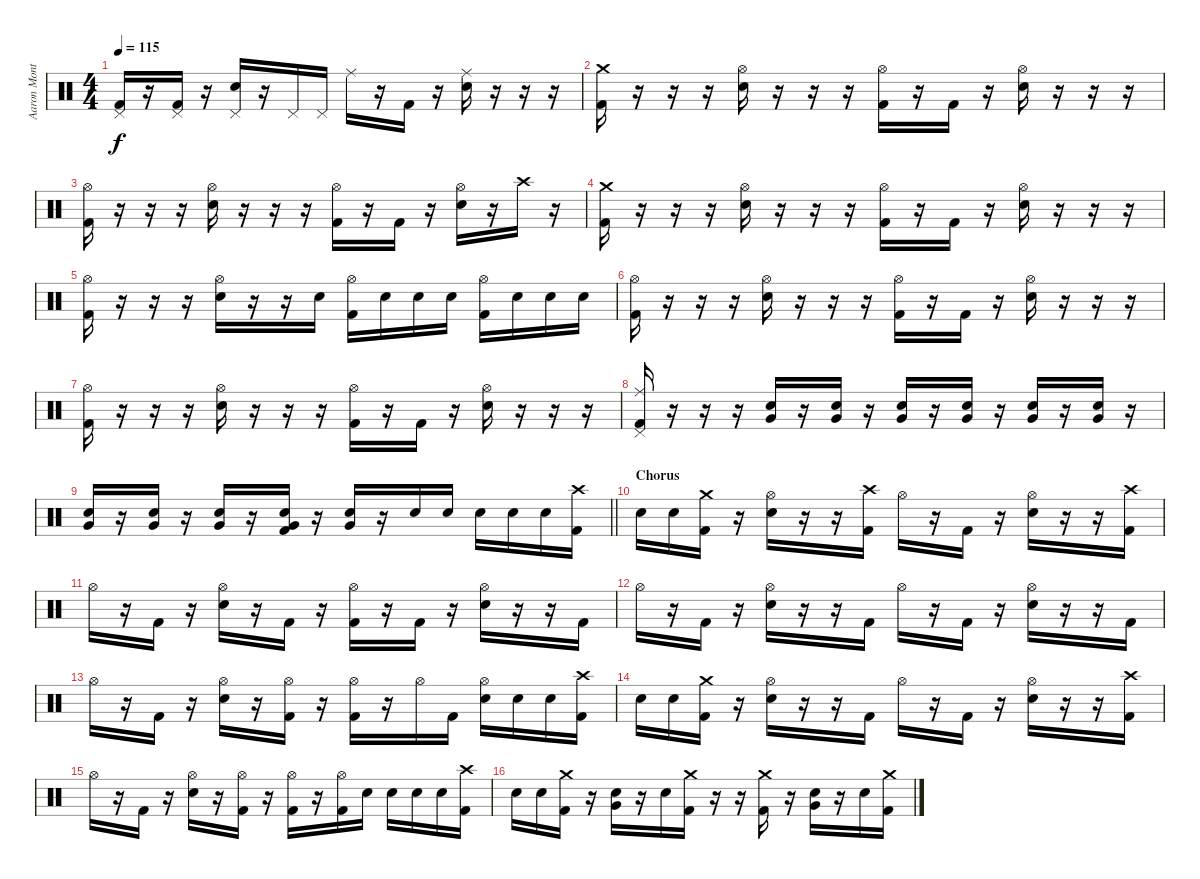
\track ("Aaron Montgomery" "Aaron Mont") {instrument percussion}
\staff {score}
\articulation defaults
\ts (4 4)
\tempo 115
\clef neutral
\ks c
("Pedal Hi-Hat (hit)" "Kick (hit) 2").16{dy f} r.16 ("Pedal Hi-Hat (hit)" "Kick (hit) 2").16 r.16 ("Pedal Hi-Hat (hit)" "Snare (hit) 2").16 r.16 "Pedal Hi-Hat (hit)".16 "Pedal Hi-Hat (hit)".16 "Ride (middle)".16 r.16 "Kick (hit) 2".16 r.16 ("Ride (middle)" "Snare (hit) 2").16 r.16 r.16 r.16 |
("Crash medium (hit)" "Kick (hit) 2").16 r.16 r.16 r.16 ("Hi-Hat (open)" "Snare (hit) 2").16 r.16 r.16 r.16 ("Hi-Hat (open)" "Kick (hit) 2").16 r.16 "Kick (hit) 2".16 r.16 ("Hi-Hat (open)" "Snare (hit) 2").16 r.16 r.16 r.16 |
("Hi-Hat (open)" "Kick (hit) 2").16 r.16 r.16 r.16 ("Hi-Hat (open)" "Snare (hit) 2").16 r.16 r.16 r.16 ("Hi-Hat (open)" "Kick (hit) 2").16 r.16 "Kick (hit) 2".16 r.16 ("Hi-Hat (open)" "Snare (hit) 2").16 r.16 "Crash high (hit)".16 r.16 |
("Crash medium (hit)" "Kick (hit) 2").16 r.16 r.16 r.16 ("Hi-Hat (open)" "Snare (hit) 2").16 r.16 r.16 r.16 ("Hi-Hat (open)" "Kick (hit) 2").16 r.16 "Kick (hit) 2".16 r.16 ("Hi-Hat (open)" "Snare (hit) 2").16 r.16 r.16 r.16 |
("Hi-Hat (open)" "Kick (hit) 2").16 r.16 r.16 r.16 ("Hi-Hat (open)" "Snare (hit) 2").16 r.16 r.16 "Snare (hit) 2".16 ("Hi-Hat (open)" "Kick (hit) 2").16 "Snare (hit) 2".16 "Snare (hit) 2".16 "Snare (hit) 2".16 ("Hi-Hat (open)" "Kick (hit) 2").16 "Snare (hit) 2".16 "Snare (hit) 2".16 "Snare (hit) 2".16 |
("Hi-Hat (open)" "Kick (hit) 2").16 r.16 r.16 r.16 ("Hi-Hat (open)" "Snare (hit) 2").16 r.16 r.16 r.16 ("Hi-Hat (open)" "Kick (hit) 2").16 r.16 "Kick (hit) 2".16 r.16 ("Hi-Hat (open)" "Snare (hit) 2").16 r.16 r.16 r.16 |
("Hi-Hat (open)" "Kick (hit) 2").16 r.16 r.16 r.16 ("Hi-Hat (open)" "Snare (hit) 2").16 r.16 r.16 r.16 ("Hi-Hat (open)" "Kick (hit) 2").16 r.16 "Kick (hit) 2".16 r.16 ("Hi-Hat (open)" "Snare (hit) 2").16 r.16 r.16 r.16 |
("Pedal Hi-Hat (hit)" "Ride (middle)" "Kick (hit) 2").16 r.16 r.16 r.16 ("Very Low Tom (hit)" "Snare (hit) 2").16 r.16 ("Very Low Tom (hit)" "Snare (hit) 2").16 r.16 ("Very Low Tom (hit)" "Snare (hit) 2").16 r.16 ("Very Low Tom (hit)" "Snare (hit) 2").16 r.16 ("Very Low Tom (hit)" "Snare (hit) 2").16 r.16 ("Very Low Tom (hit)" "Snare (hit) 2").16 r.16 |
\barLineRight lightlight
("Very Low Tom (hit)" "Snare (hit) 2").16 r.16 ("Very Low Tom (hit)" "Snare (hit) 2").16 r.16 ("Very Low Tom (hit)" "Snare (hit) 2").16 r.16 ("Very Low Tom (hit)" "Snare (hit) 2" "Kick (hit) 2").16 r.16 ("Very Low Tom (hit)" "Snare (hit) 2").16 r.16 "Snare (hit) 2".16 "Snare (hit) 2".16 "Snare (hit) 2".16 "Snare (hit) 2".16 "Snare (hit) 2".16 ("Crash high (hit)" "Kick (hit) 2").16 |
\section ("" "Chorus")
"Snare (hit) 2".16 "Snare (hit) 2".16 ("Crash medium (hit)" "Kick (hit) 2").16 r.16 ("Hi-Hat (open)" "Snare (hit) 2").16 r.16 r.16 ("Crash high (hit)" "Kick (hit) 2").16 "Hi-Hat (open)".16 r.16 "Kick (hit) 2".16 r.16 ("Hi-Hat (open)" "Snare (hit) 2").16 r.16 r.16 ("Crash high (hit)" "Kick (hit) 2").16 |
"Hi-Hat (open)".16 r.16 "Kick (hit) 2".16 r.16 ("Hi-Hat (open)" "Snare (hit) 2").16 r.16 "Kick (hit) 2".16 r.16 ("Hi-Hat (open)" "Kick (hit) 2").16 r.16 "Kick (hit) 2".16 r.16 ("Hi-Hat (open)" "Snare (hit) 2").16 r.16 r.16 "Kick (hit) 2".16 |
"Hi-Hat (open)".16 r.16 "Kick (hit) 2".16 r.16 ("Hi-Hat (open)" "Snare (hit) 2").16 r.16 r.16 "Kick (hit) 2".16 "Hi-Hat (open)".16 r.16 "Kick (hit) 2".16 r.16 ("Hi-Hat (open)" "Snare (hit) 2").16 r.16 r.16 "Kick (hit) 2".16 |
"Hi-Hat (open)".16 r.16 "Kick (hit) 2".16 r.16 ("Hi-Hat (open)" "Snare (hit) 2").16 r.16 ("Hi-Hat (open)" "Kick (hit) 2").16 r.16 ("Hi-Hat (open)" "Kick (hit) 2").16 r.16 "Hi-Hat (open)".16 "Kick (hit) 2".16 ("Hi-Hat (open)" "Snare (hit) 2").16 "Snare (hit) 2".16 "Snare (hit) 2".16 ("Crash high (hit)" "Kick (hit) 2").16 |
"Snare (hit) 2".16 "Snare (hit) 2".16 ("Crash medium (hit)" "Kick (hit) 2").16 r.16 ("Hi-Hat (open)" "Snare (hit) 2").16 r.16 r.16 "Kick (hit) 2".16 "Hi-Hat (open)".16 r.16 "Kick (hit) 2".16 r.16 ("Hi-Hat (open)" "Snare (hit) 2").16 r.16 r.16 ("Crash high (hit)" "Kick (hit) 2").16 |
"Hi-Hat (open)".16 r.16 "Kick (hit) 2".16 r.16 ("Hi-Hat (open)" "Snare (hit) 2").16 r.16 ("Hi-Hat (open)" "Kick (hit) 2").16 r.16 ("Hi-Hat (open)" "Kick (hit) 2").16 r.16 ("Hi-Hat (open)" "Kick (hit) 2").16 "Snare (hit) 2".16 "Snare (hit) 2".16 "Snare (hit) 2".16 "Snare (hit) 2".16 ("Crash high (hit)" "Kick (hit) 2").16 |
"Snare (hit) 2".16 "Snare (hit) 2".16 ("Crash medium (hit)" "Kick (hit) 2").16 r.16 ("Very Low Tom (hit)" "Snare (hit) 2").16 r.16 "Snare (hit) 2".16 ("Crash medium (hit)" "Kick (hit) 2").16 r.16 r.16 ("Crash medium (hit)" "Kick (hit) 2").16 r.16 ("Very Low Tom (hit)" "Snare (hit) 2").16 r.16 "Snare (hit) 2".16 ("Crash medium (hit)" "Kick (hit) 2").16
